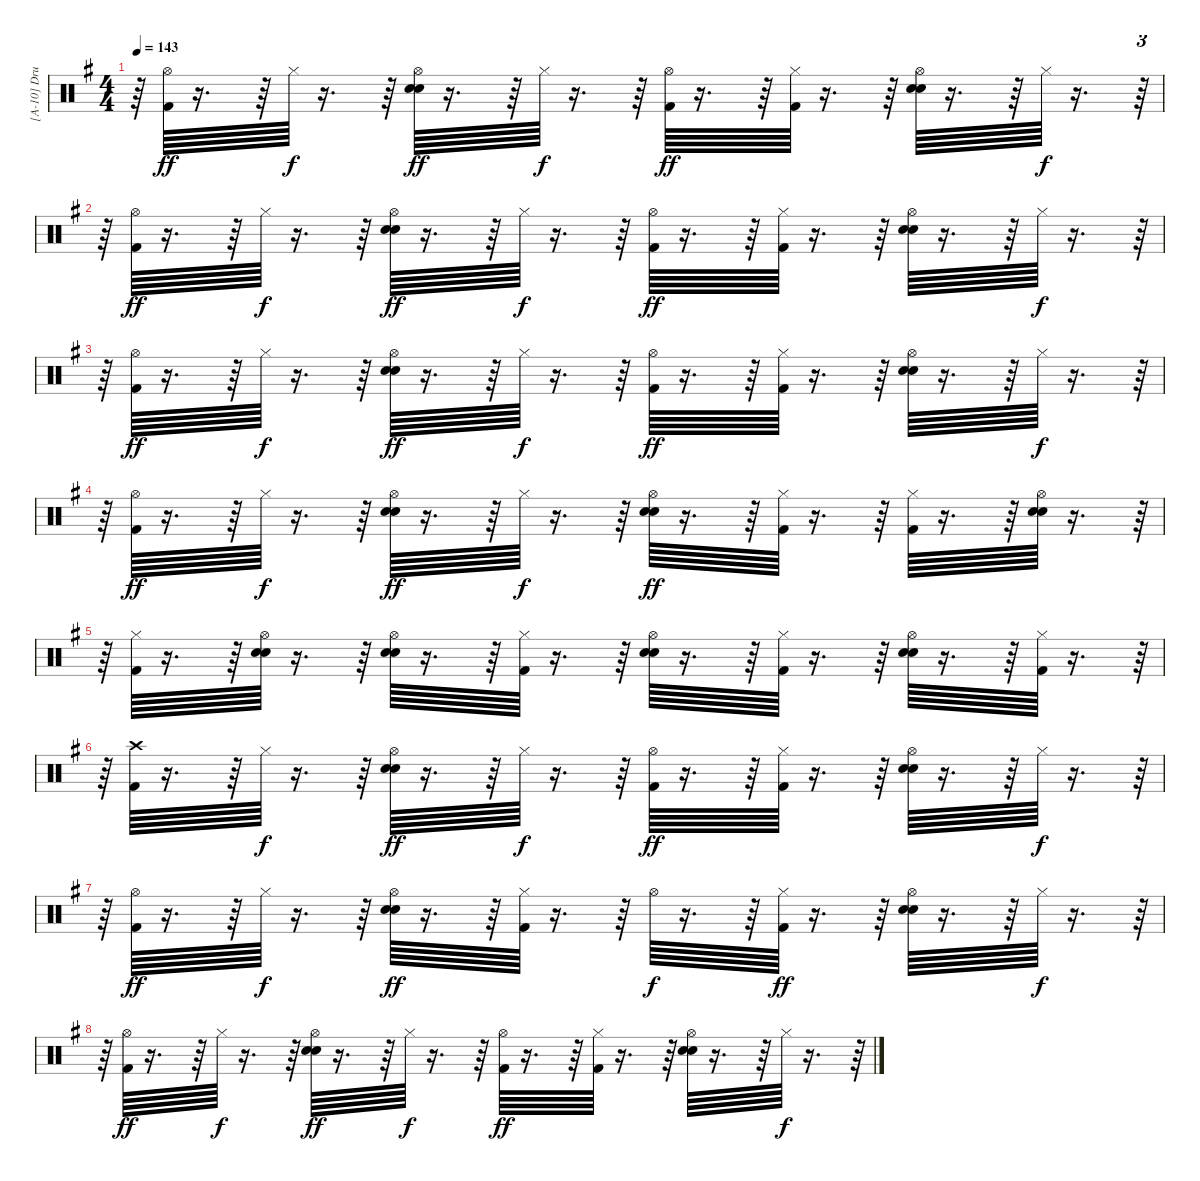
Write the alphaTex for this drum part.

\track ("[A-10] Drums" "[A-10] Dru") {instrument percussion}
\staff {score}
\articulation defaults
\ts (4 4)
\tempo 143
\clef neutral
\ks g
r.64{dy f} ("Hi-Hat (open)" "Kick (hit) 2").64{dy ff} r.16{d} r.64 "Hi-Hat (closed)".64{dy f} r.16{d} r.64 ("Hi-Hat (open)" "Electric Snare (hit)" "Snare (hit) 2").64{dy ff} r.16{d} r.64 "Hi-Hat (closed)".64{dy f} r.16{d} r.64 ("Hi-Hat (open)" "Kick (hit) 2").64{dy ff} r.16{d} r.64 ("Hi-Hat (closed)" "Kick (hit) 2").64 r.16{d} r.64 ("Hi-Hat (open)" "Electric Snare (hit)" "Snare (hit) 2").64 r.16{d} r.64 "Hi-Hat (closed)".64{dy f} r.16{d} r.64{tu (3 2)} |
r.64 ("Hi-Hat (open)" "Kick (hit) 2").64{dy ff} r.16{d} r.64 "Hi-Hat (closed)".64{dy f} r.16{d} r.64 ("Hi-Hat (open)" "Electric Snare (hit)" "Snare (hit) 2").64{dy ff} r.16{d} r.64 "Hi-Hat (closed)".64{dy f} r.16{d} r.64 ("Hi-Hat (open)" "Kick (hit) 2").64{dy ff} r.16{d} r.64 ("Hi-Hat (closed)" "Kick (hit) 2").64 r.16{d} r.64 ("Hi-Hat (open)" "Electric Snare (hit)" "Snare (hit) 2").64 r.16{d} r.64 "Hi-Hat (closed)".64{dy f} r.16{d} r.64{tu (3 2)} |
r.64 ("Hi-Hat (open)" "Kick (hit) 2").64{dy ff} r.16{d} r.64 "Hi-Hat (closed)".64{dy f} r.16{d} r.64 ("Hi-Hat (open)" "Electric Snare (hit)" "Snare (hit) 2").64{dy ff} r.16{d} r.64 "Hi-Hat (closed)".64{dy f} r.16{d} r.64 ("Hi-Hat (open)" "Kick (hit) 2").64{dy ff} r.16{d} r.64 ("Hi-Hat (closed)" "Kick (hit) 2").64 r.16{d} r.64 ("Hi-Hat (open)" "Electric Snare (hit)" "Snare (hit) 2").64 r.16{d} r.64 "Hi-Hat (closed)".64{dy f} r.16{d} r.64{tu (3 2)} |
r.64 ("Hi-Hat (open)" "Kick (hit) 2").64{dy ff} r.16{d} r.64 "Hi-Hat (closed)".64{dy f} r.16{d} r.64 ("Hi-Hat (open)" "Electric Snare (hit)" "Snare (hit) 2").64{dy ff} r.16{d} r.64 "Hi-Hat (closed)".64{dy f} r.16{d} r.64 ("Hi-Hat (open)" "Electric Snare (hit)" "Snare (hit) 2").64{dy ff} r.16{d} r.64 ("Hi-Hat (closed)" "Kick (hit) 2").64 r.16{d} r.64 ("Hi-Hat (closed)" "Kick (hit) 2").64 r.16{d} r.64 ("Hi-Hat (open)" "Electric Snare (hit)" "Snare (hit) 2").64 r.16{d} r.64{tu (3 2)} |
r.64 ("Hi-Hat (closed)" "Kick (hit) 2").64 r.16{d} r.64 ("Hi-Hat (open)" "Electric Snare (hit)" "Snare (hit) 2").64 r.16{d} r.64 ("Hi-Hat (open)" "Electric Snare (hit)" "Snare (hit) 2").64 r.16{d} r.64 ("Hi-Hat (closed)" "Kick (hit) 2").64 r.16{d} r.64 ("Hi-Hat (open)" "Electric Snare (hit)" "Snare (hit) 2").64 r.16{d} r.64 ("Hi-Hat (closed)" "Kick (hit) 2").64 r.16{d} r.64 ("Hi-Hat (open)" "Electric Snare (hit)" "Snare (hit) 2").64 r.16{d} r.64 ("Hi-Hat (closed)" "Kick (hit) 2").64 r.16{d} r.64{tu (3 2)} |
r.64 ("Crash high (hit)" "Kick (hit) 2").64 r.16{d} r.64 "Hi-Hat (closed)".64{dy f} r.16{d} r.64 ("Hi-Hat (open)" "Electric Snare (hit)" "Snare (hit) 2").64{dy ff} r.16{d} r.64 "Hi-Hat (closed)".64{dy f} r.16{d} r.64 ("Hi-Hat (open)" "Kick (hit) 2").64{dy ff} r.16{d} r.64 ("Hi-Hat (closed)" "Kick (hit) 2").64 r.16{d} r.64 ("Hi-Hat (open)" "Electric Snare (hit)" "Snare (hit) 2").64 r.16{d} r.64 "Hi-Hat (closed)".64{dy f} r.16{d} r.64{tu (3 2)} |
r.64 ("Hi-Hat (open)" "Kick (hit) 2").64{dy ff} r.16{d} r.64 "Hi-Hat (closed)".64{dy f} r.16{d} r.64 ("Hi-Hat (open)" "Electric Snare (hit)" "Snare (hit) 2").64{dy ff} r.16{d} r.64 ("Hi-Hat (closed)" "Kick (hit) 2").64 r.16{d} r.64 "Hi-Hat (open)".64{dy f} r.16{d} r.64 ("Hi-Hat (closed)" "Kick (hit) 2").64{dy ff} r.16{d} r.64 ("Hi-Hat (open)" "Electric Snare (hit)" "Snare (hit) 2").64 r.16{d} r.64 "Hi-Hat (closed)".64{dy f} r.16{d} r.64{tu (3 2)} |
r.64 ("Hi-Hat (open)" "Kick (hit) 2").64{dy ff} r.16{d} r.64 "Hi-Hat (closed)".64{dy f} r.16{d} r.64 ("Hi-Hat (open)" "Electric Snare (hit)" "Snare (hit) 2").64{dy ff} r.16{d} r.64 "Hi-Hat (closed)".64{dy f} r.16{d} r.64 ("Hi-Hat (open)" "Kick (hit) 2").64{dy ff} r.16{d} r.64 ("Hi-Hat (closed)" "Kick (hit) 2").64 r.16{d} r.64 ("Hi-Hat (open)" "Electric Snare (hit)" "Snare (hit) 2").64 r.16{d} r.64 "Hi-Hat (closed)".64{dy f} r.16{d} r.64{tu (3 2)}
